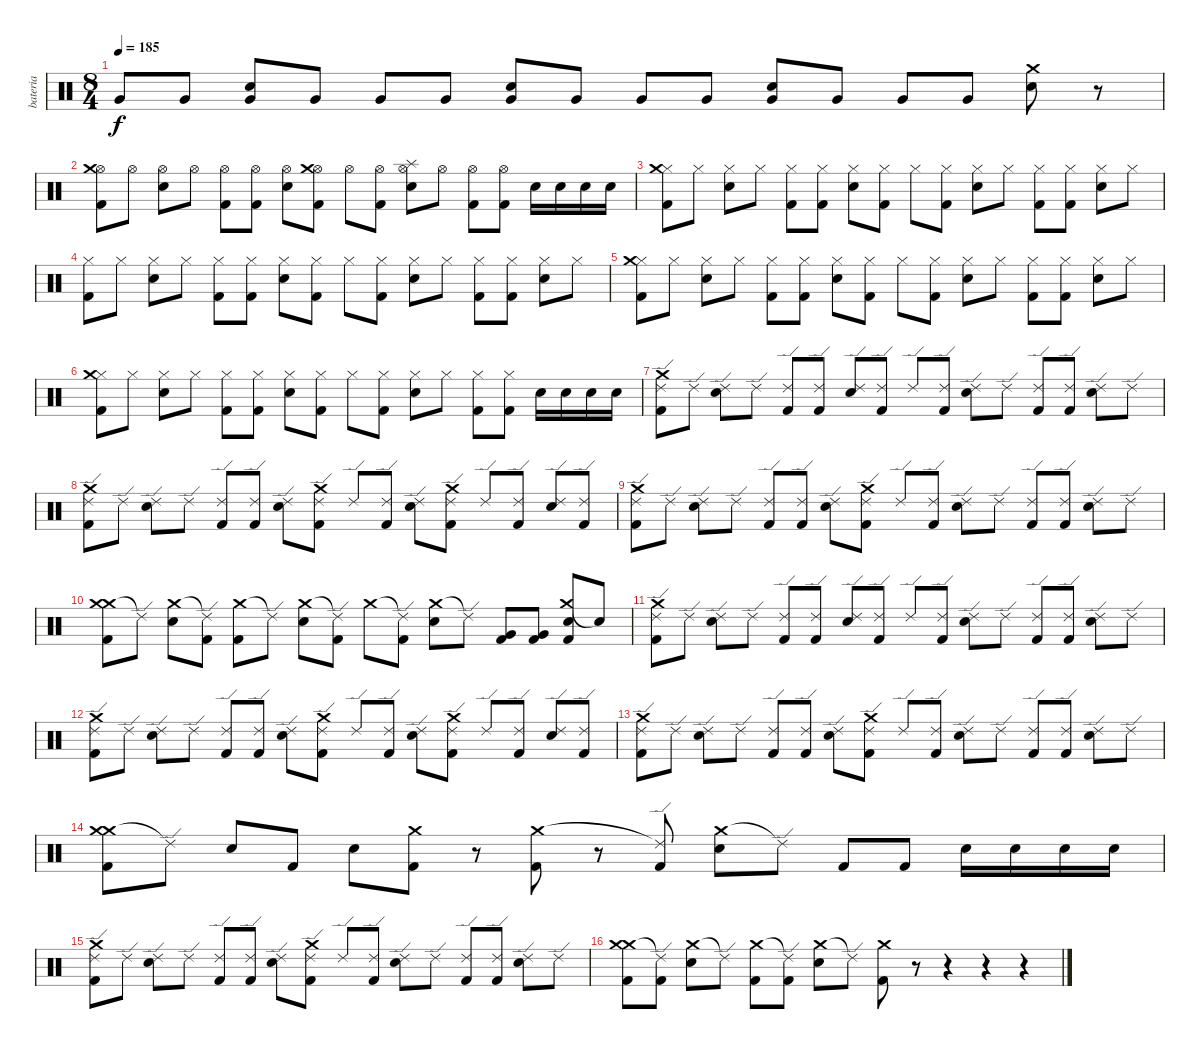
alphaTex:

\track ("bateria" "bateria") {instrument percussion}
\staff {score}
\articulation defaults
\ts (8 4)
\tempo 185
\clef neutral
\ks c "Very Low Tom (hit)".8{dy f} "Very Low Tom (hit)".8
("Electric Snare (hit)" "Very Low Tom (hit)").8 "Very Low Tom (hit)".8 "Very Low Tom (hit)".8 "Very Low Tom (hit)".8 ("Electric Snare (hit)" "Very Low Tom (hit)").8 "Very Low Tom (hit)".8 "Very Low Tom (hit)".8 "Very Low Tom (hit)".8 ("Electric Snare (hit)" "Very Low Tom (hit)").8 "Very Low Tom (hit)".8 "Very Low Tom (hit)".8 "Very Low Tom (hit)".8 ("Electric Snare (hit)" "Crash medium (hit)").8 r.8 |
("Hi-Hat (open)" "Kick (hit) 2" "Crash medium (hit)").8 "Hi-Hat (open)".8 ("Hi-Hat (open)" "Electric Snare (hit)").8 "Hi-Hat (open)".8 ("Hi-Hat (open)" "Kick (hit) 2").8 ("Hi-Hat (open)" "Kick (hit) 2").8 ("Hi-Hat (open)" "Electric Snare (hit)").8 ("Hi-Hat (open)" "Kick (hit) 2" "Crash medium (hit)").8 "Hi-Hat (open)".8 ("Hi-Hat (open)" "Kick (hit) 2").8 ("Hi-Hat (open)" "Electric Snare (hit)" "Splash (hit)").8 "Hi-Hat (open)".8 ("Hi-Hat (open)" "Kick (hit) 2").8 ("Hi-Hat (open)" "Kick (hit) 2").8 "Electric Snare (hit)".16 "Electric Snare (hit)".16 "Electric Snare (hit)".16 "Electric Snare (hit)".16 |
("Hi-Hat (closed)" "Kick (hit) 2" "Crash medium (hit)").8 "Hi-Hat (closed)".8 ("Hi-Hat (closed)" "Electric Snare (hit)").8 "Hi-Hat (closed)".8 ("Hi-Hat (closed)" "Kick (hit) 2").8 ("Hi-Hat (closed)" "Kick (hit) 2").8 ("Hi-Hat (closed)" "Electric Snare (hit)").8 ("Hi-Hat (closed)" "Kick (hit) 2").8 "Hi-Hat (closed)".8 ("Hi-Hat (closed)" "Kick (hit) 2").8 ("Hi-Hat (closed)" "Electric Snare (hit)").8 "Hi-Hat (closed)".8 ("Hi-Hat (closed)" "Kick (hit) 2").8 ("Hi-Hat (closed)" "Kick (hit) 2").8 ("Hi-Hat (closed)" "Electric Snare (hit)").8 "Hi-Hat (closed)".8 |
("Hi-Hat (closed)" "Kick (hit) 2").8 "Hi-Hat (closed)".8 ("Hi-Hat (closed)" "Electric Snare (hit)").8 "Hi-Hat (closed)".8 ("Hi-Hat (closed)" "Kick (hit) 2").8 ("Hi-Hat (closed)" "Kick (hit) 2").8 ("Hi-Hat (closed)" "Electric Snare (hit)").8 ("Hi-Hat (closed)" "Kick (hit) 2").8 "Hi-Hat (closed)".8 ("Hi-Hat (closed)" "Kick (hit) 2").8 ("Hi-Hat (closed)" "Electric Snare (hit)").8 "Hi-Hat (closed)".8 ("Hi-Hat (closed)" "Kick (hit) 2").8 ("Hi-Hat (closed)" "Kick (hit) 2").8 ("Hi-Hat (closed)" "Electric Snare (hit)").8 "Hi-Hat (closed)".8 |
("Hi-Hat (closed)" "Kick (hit) 2" "Crash medium (hit)").8 "Hi-Hat (closed)".8 ("Hi-Hat (closed)" "Electric Snare (hit)").8 "Hi-Hat (closed)".8 ("Hi-Hat (closed)" "Kick (hit) 2").8 ("Hi-Hat (closed)" "Kick (hit) 2").8 ("Hi-Hat (closed)" "Electric Snare (hit)").8 ("Hi-Hat (closed)" "Kick (hit) 2").8 "Hi-Hat (closed)".8 ("Hi-Hat (closed)" "Kick (hit) 2").8 ("Hi-Hat (closed)" "Electric Snare (hit)").8 "Hi-Hat (closed)".8 ("Hi-Hat (closed)" "Kick (hit) 2").8 ("Hi-Hat (closed)" "Kick (hit) 2").8 ("Hi-Hat (closed)" "Electric Snare (hit)").8 "Hi-Hat (closed)".8 |
("Hi-Hat (closed)" "Kick (hit) 2" "Crash medium (hit)").8 "Hi-Hat (closed)".8 ("Hi-Hat (closed)" "Electric Snare (hit)").8 "Hi-Hat (closed)".8 ("Hi-Hat (closed)" "Kick (hit) 2").8 ("Hi-Hat (closed)" "Kick (hit) 2").8 ("Hi-Hat (closed)" "Electric Snare (hit)").8 ("Hi-Hat (closed)" "Kick (hit) 2").8 "Hi-Hat (closed)".8 ("Hi-Hat (closed)" "Kick (hit) 2").8 ("Hi-Hat (closed)" "Electric Snare (hit)").8 "Hi-Hat (closed)".8 ("Hi-Hat (closed)" "Kick (hit) 2").8 ("Hi-Hat (closed)" "Kick (hit) 2").8 "Electric Snare (hit)".16 "Electric Snare (hit)".16 "Electric Snare (hit)".16 "Electric Snare (hit)".16 |
("Ride (edge) 2" "Kick (hit) 2" "Crash medium (hit)").8 "Ride (edge) 2".8 ("Ride (edge) 2" "Electric Snare (hit)").8 "Ride (edge) 2".8 ("Ride (edge) 2" "Kick (hit) 2").8 ("Ride (edge) 2" "Kick (hit) 2").8 ("Ride (edge) 2" "Electric Snare (hit)").8 ("Ride (edge) 2" "Kick (hit) 2").8 "Ride (edge) 2".8 ("Ride (edge) 2" "Kick (hit) 2").8 ("Ride (edge) 2" "Electric Snare (hit)").8 "Ride (edge) 2".8 ("Ride (edge) 2" "Kick (hit) 2").8 ("Ride (edge) 2" "Kick (hit) 2").8 ("Ride (edge) 2" "Electric Snare (hit)").8 "Ride (edge) 2".8 |
("Ride (edge) 2" "Kick (hit) 2" "Crash medium (hit)").8 "Ride (edge) 2".8 ("Ride (edge) 2" "Electric Snare (hit)").8 "Ride (edge) 2".8 ("Ride (edge) 2" "Kick (hit) 2").8 ("Ride (edge) 2" "Kick (hit) 2").8 ("Ride (edge) 2" "Electric Snare (hit)").8 ("Ride (edge) 2" "Kick (hit) 2" "Crash medium (hit)").8 "Ride (edge) 2".8 ("Ride (edge) 2" "Kick (hit) 2").8 ("Ride (edge) 2" "Electric Snare (hit)").8 ("Ride (edge) 2" "Kick (hit) 2" "Crash medium (hit)").8 "Ride (edge) 2".8 ("Ride (edge) 2" "Kick (hit) 2").8 ("Ride (edge) 2" "Electric Snare (hit)").8 ("Ride (edge) 2" "Kick (hit) 2").8 |
("Ride (edge) 2" "Kick (hit) 2" "Crash medium (hit)").8 "Ride (edge) 2".8 ("Ride (edge) 2" "Electric Snare (hit)").8 "Ride (edge) 2".8 ("Ride (edge) 2" "Kick (hit) 2").8 ("Ride (edge) 2" "Kick (hit) 2").8 ("Ride (edge) 2" "Electric Snare (hit)").8 ("Ride (edge) 2" "Kick (hit) 2" "Crash medium (hit)").8 "Ride (edge) 2".8 ("Ride (edge) 2" "Kick (hit) 2").8 ("Ride (edge) 2" "Electric Snare (hit)").8 "Ride (edge) 2".8 ("Ride (edge) 2" "Kick (hit) 2").8 ("Ride (edge) 2" "Kick (hit) 2").8 ("Ride (edge) 2" "Electric Snare (hit)").8 "Ride (edge) 2".8 |
("Crash medium (hit)" "Kick (hit) 2" "Crash medium (hit)").8 "Ride (edge) 2"{t}.8 ("Crash medium (hit)" "Electric Snare (hit)").8 ("Ride (edge) 2"{t} "Kick (hit) 2").8 ("Crash medium (hit)" "Kick (hit) 2").8 "Ride (edge) 2"{t}.8 ("Crash medium (hit)" "Electric Snare (hit)").8 ("Ride (edge) 2"{t} "Kick (hit) 2").8 "Crash medium (hit)".8 ("Ride (edge) 2"{t} "Kick (hit) 2").8 ("Crash medium (hit)" "Electric Snare (hit)").8 "Ride (edge) 2"{t}.8 ("Very Low Tom (hit)" "Kick (hit) 2").8 ("Very Low Tom (hit)" "Kick (hit) 2").8 ("Crash medium (hit)" "Electric Snare (hit)" "Kick (hit) 2").8 "Snare (hit)"{t}.8 |
("Ride (edge) 2" "Kick (hit) 2" "Crash medium (hit)").8 "Ride (edge) 2".8 ("Ride (edge) 2" "Electric Snare (hit)").8 "Ride (edge) 2".8 ("Ride (edge) 2" "Kick (hit) 2").8 ("Ride (edge) 2" "Kick (hit) 2").8 ("Ride (edge) 2" "Electric Snare (hit)").8 ("Ride (edge) 2" "Kick (hit) 2").8 "Ride (edge) 2".8 ("Ride (edge) 2" "Kick (hit) 2").8 ("Ride (edge) 2" "Electric Snare (hit)").8 "Ride (edge) 2".8 ("Ride (edge) 2" "Kick (hit) 2").8 ("Ride (edge) 2" "Kick (hit) 2").8 ("Ride (edge) 2" "Electric Snare (hit)").8 "Ride (edge) 2".8 |
("Ride (edge) 2" "Kick (hit) 2" "Crash medium (hit)").8 "Ride (edge) 2".8 ("Ride (edge) 2" "Electric Snare (hit)").8 "Ride (edge) 2".8 ("Ride (edge) 2" "Kick (hit) 2").8 ("Ride (edge) 2" "Kick (hit) 2").8 ("Ride (edge) 2" "Electric Snare (hit)").8 ("Ride (edge) 2" "Kick (hit) 2" "Crash medium (hit)").8 "Ride (edge) 2".8 ("Ride (edge) 2" "Kick (hit) 2").8 ("Ride (edge) 2" "Electric Snare (hit)").8 ("Ride (edge) 2" "Kick (hit) 2" "Crash medium (hit)").8 "Ride (edge) 2".8 ("Ride (edge) 2" "Kick (hit) 2").8 ("Ride (edge) 2" "Electric Snare (hit)").8 ("Ride (edge) 2" "Kick (hit) 2").8 |
("Ride (edge) 2" "Kick (hit) 2" "Crash medium (hit)").8 "Ride (edge) 2".8 ("Ride (edge) 2" "Electric Snare (hit)").8 "Ride (edge) 2".8 ("Ride (edge) 2" "Kick (hit) 2").8 ("Ride (edge) 2" "Kick (hit) 2").8 ("Ride (edge) 2" "Electric Snare (hit)").8 ("Ride (edge) 2" "Kick (hit) 2" "Crash medium (hit)").8 "Ride (edge) 2".8 ("Ride (edge) 2" "Kick (hit) 2").8 ("Ride (edge) 2" "Electric Snare (hit)").8 "Ride (edge) 2".8 ("Ride (edge) 2" "Kick (hit) 2").8 ("Ride (edge) 2" "Kick (hit) 2").8 ("Ride (edge) 2" "Electric Snare (hit)").8 "Ride (edge) 2".8 |
("Crash medium (hit)" "Kick (hit) 2" "Crash medium (hit)").8 "Ride (edge) 2"{t}.8 "Electric Snare (hit)".8 "Kick (hit) 2".8 "Electric Snare (hit)".8 ("Crash medium (hit)" "Kick (hit) 2").8 r.8 ("Crash medium (hit)" "Kick (hit) 2").8 r.8 ("Ride (edge) 2"{t} "Kick (hit) 2").8 ("Crash medium (hit)" "Electric Snare (hit)").8 "Ride (edge) 2"{t}.8 "Kick (hit) 2".8 "Kick (hit) 2".8 "Electric Snare (hit)".16 "Electric Snare (hit)".16 "Electric Snare (hit)".16 "Electric Snare (hit)".16 |
("Ride (edge) 2" "Kick (hit) 2" "Crash medium (hit)").8 "Ride (edge) 2".8 ("Ride (edge) 2" "Electric Snare (hit)").8 "Ride (edge) 2".8 ("Ride (edge) 2" "Kick (hit) 2").8 ("Ride (edge) 2" "Kick (hit) 2").8 ("Ride (edge) 2" "Electric Snare (hit)").8 ("Ride (edge) 2" "Kick (hit) 2" "Crash medium (hit)").8 "Ride (edge) 2".8 ("Ride (edge) 2" "Kick (hit) 2").8 ("Ride (edge) 2" "Electric Snare (hit)").8 "Ride (edge) 2".8 ("Ride (edge) 2" "Kick (hit) 2").8 ("Ride (edge) 2" "Kick (hit) 2").8 ("Ride (edge) 2" "Electric Snare (hit)").8 "Ride (edge) 2".8 |
("Crash medium (hit)" "Kick (hit) 2" "Crash medium (hit)").8 ("Ride (edge) 2"{t} "Kick (hit) 2").8 ("Crash medium (hit)" "Electric Snare (hit)").8 "Ride (edge) 2"{t}.8 ("Crash medium (hit)" "Kick (hit) 2").8 ("Ride (edge) 2"{t} "Kick (hit) 2").8 ("Crash medium (hit)" "Electric Snare (hit)").8 "Ride (edge) 2"{t}.8 ("Crash medium (hit)" "Kick (hit) 2").8 r.8 r.4 r.4 r.4
